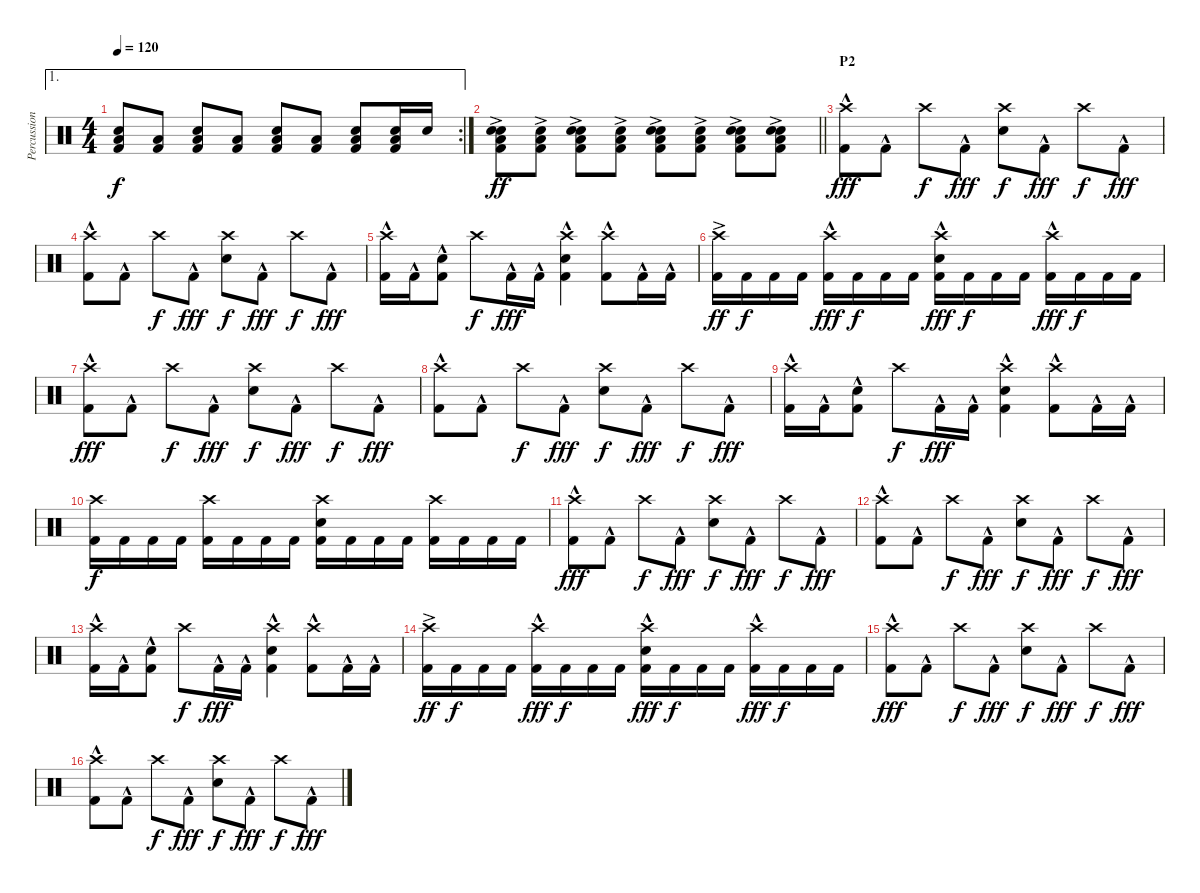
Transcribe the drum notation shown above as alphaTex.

\track ("Percussions" "Percussion") {instrument percussion}
\staff {score}
\articulation defaults
\ae 1
\rc 2
\ts (4 4)
\tempo 120
\clef neutral
\ks c
("Low Tom (hit)" "Snare (hit) 2" "Kick (hit) 2").8{dy f} ("Low Tom (hit)" "Kick (hit) 2").8 ("Snare (hit) 2" "Low Tom (hit)" "Kick (hit) 2").8 ("Low Tom (hit)" "Kick (hit) 2").8 ("Snare (hit) 2" "Low Tom (hit)" "Kick (hit) 2").8 ("Low Tom (hit)" "Kick (hit) 2").8 ("Snare (hit) 2" "Low Tom (hit)" "Kick (hit) 2").8 ("Snare (hit) 2" "Low Tom (hit)" "Kick (hit) 2").16 "Electric Snare (hit)".16 |
\barLineRight lightlight
("Electric Snare (hit)"{ac} "Low Tom (hit)" "Snare (hit) 2" "Kick (hit) 2").8{dy ff} ("Electric Snare (hit)"{ac} "Low Tom (hit)" "Kick (hit) 2").8 ("Electric Snare (hit)"{ac} "Snare (hit) 2" "Low Tom (hit)" "Kick (hit) 2").8 ("Electric Snare (hit)"{ac} "Low Tom (hit)" "Kick (hit) 2").8 ("Electric Snare (hit)"{ac} "Snare (hit) 2" "Low Tom (hit)" "Kick (hit) 2").8 ("Electric Snare (hit)"{ac} "Low Tom (hit)" "Kick (hit) 2").8 ("Electric Snare (hit)"{ac} "Snare (hit) 2" "Low Tom (hit)" "Kick (hit) 2").8 ("Electric Snare (hit)"{ac} "Snare (hit) 2" "Low Tom (hit)" "Kick (hit) 2").8 |
\section ("" "P2")
("Crash high (hit)" "Kick (hit) 2"{hac}).8{dy fff} "Kick (hit) 2"{hac}.8 "Crash high (hit)".8{dy f} "Kick (hit) 2"{hac}.8{dy fff} ("Crash high (hit)" "Snare (hit) 2").8{dy f} "Kick (hit) 2"{hac}.8{dy fff} "Crash high (hit)".8{dy f} "Kick (hit) 2"{hac}.8{dy fff} |
("Crash high (hit)" "Kick (hit) 2"{hac}).8 "Kick (hit) 2"{hac}.8 "Crash high (hit)".8{dy f} "Kick (hit) 2"{hac}.8{dy fff} ("Crash high (hit)" "Snare (hit) 2").8{dy f} "Kick (hit) 2"{hac}.8{dy fff} "Crash high (hit)".8{dy f} "Kick (hit) 2"{hac}.8{dy fff} |
("Crash high (hit)" "Kick (hit) 2"{hac}).16 "Kick (hit) 2"{hac}.16 ("Snare (hit) 2" "Kick (hit) 2"{hac}).8 "Crash high (hit)".8{dy f} "Kick (hit) 2"{hac}.16{dy fff} "Kick (hit) 2"{hac}.16 ("Crash high (hit)" "Snare (hit) 2" "Kick (hit) 2"{hac}).4 ("Crash high (hit)" "Kick (hit) 2"{hac}).8 "Kick (hit) 2"{hac}.16 "Kick (hit) 2"{hac}.16 |
("Crash high (hit)" "Kick (hit) 2"{ac}).16{dy ff} "Kick (hit) 2".16{dy f} "Kick (hit) 2".16 "Kick (hit) 2".16 ("Crash high (hit)" "Kick (hit) 2"{hac}).16{dy fff} "Kick (hit) 2".16{dy f} "Kick (hit) 2".16 "Kick (hit) 2".16 ("Crash high (hit)" "Snare (hit) 2" "Kick (hit) 2"{hac}).16{dy fff} "Kick (hit) 2".16{dy f} "Kick (hit) 2".16 "Kick (hit) 2".16 ("Crash high (hit)" "Kick (hit) 2"{hac}).16{dy fff} "Kick (hit) 2".16{dy f} "Kick (hit) 2".16 "Kick (hit) 2".16 |
("Crash high (hit)" "Kick (hit) 2"{hac}).8{dy fff} "Kick (hit) 2"{hac}.8 "Crash high (hit)".8{dy f} "Kick (hit) 2"{hac}.8{dy fff} ("Crash high (hit)" "Snare (hit) 2").8{dy f} "Kick (hit) 2"{hac}.8{dy fff} "Crash high (hit)".8{dy f} "Kick (hit) 2"{hac}.8{dy fff} |
("Crash high (hit)" "Kick (hit) 2"{hac}).8 "Kick (hit) 2"{hac}.8 "Crash high (hit)".8{dy f} "Kick (hit) 2"{hac}.8{dy fff} ("Crash high (hit)" "Snare (hit) 2").8{dy f} "Kick (hit) 2"{hac}.8{dy fff} "Crash high (hit)".8{dy f} "Kick (hit) 2"{hac}.8{dy fff} |
("Crash high (hit)" "Kick (hit) 2"{hac}).16 "Kick (hit) 2"{hac}.16 ("Snare (hit) 2" "Kick (hit) 2"{hac}).8 "Crash high (hit)".8{dy f} "Kick (hit) 2"{hac}.16{dy fff} "Kick (hit) 2"{hac}.16 ("Crash high (hit)" "Snare (hit) 2" "Kick (hit) 2"{hac}).4 ("Crash high (hit)" "Kick (hit) 2"{hac}).8 "Kick (hit) 2"{hac}.16 "Kick (hit) 2"{hac}.16 |
("Crash high (hit)" "Kick (hit) 2").16{dy f} "Kick (hit) 2".16 "Kick (hit) 2".16 "Kick (hit) 2".16 ("Crash high (hit)" "Kick (hit) 2").16 "Kick (hit) 2".16 "Kick (hit) 2".16 "Kick (hit) 2".16 ("Crash high (hit)" "Snare (hit) 2" "Kick (hit) 2").16 "Kick (hit) 2".16 "Kick (hit) 2".16 "Kick (hit) 2".16 ("Crash high (hit)" "Kick (hit) 2").16 "Kick (hit) 2".16 "Kick (hit) 2".16 "Kick (hit) 2".16 |
("Crash high (hit)" "Kick (hit) 2"{hac}).8{dy fff} "Kick (hit) 2"{hac}.8 "Crash high (hit)".8{dy f} "Kick (hit) 2"{hac}.8{dy fff} ("Crash high (hit)" "Snare (hit) 2").8{dy f} "Kick (hit) 2"{hac}.8{dy fff} "Crash high (hit)".8{dy f} "Kick (hit) 2"{hac}.8{dy fff} |
("Crash high (hit)" "Kick (hit) 2"{hac}).8 "Kick (hit) 2"{hac}.8 "Crash high (hit)".8{dy f} "Kick (hit) 2"{hac}.8{dy fff} ("Crash high (hit)" "Snare (hit) 2").8{dy f} "Kick (hit) 2"{hac}.8{dy fff} "Crash high (hit)".8{dy f} "Kick (hit) 2"{hac}.8{dy fff} |
("Crash high (hit)" "Kick (hit) 2"{hac}).16 "Kick (hit) 2"{hac}.16 ("Snare (hit) 2" "Kick (hit) 2"{hac}).8 "Crash high (hit)".8{dy f} "Kick (hit) 2"{hac}.16{dy fff} "Kick (hit) 2"{hac}.16 ("Crash high (hit)" "Snare (hit) 2" "Kick (hit) 2"{hac}).4 ("Crash high (hit)" "Kick (hit) 2"{hac}).8 "Kick (hit) 2"{hac}.16 "Kick (hit) 2"{hac}.16 |
("Crash high (hit)" "Kick (hit) 2"{ac}).16{dy ff} "Kick (hit) 2".16{dy f} "Kick (hit) 2".16 "Kick (hit) 2".16 ("Crash high (hit)" "Kick (hit) 2"{hac}).16{dy fff} "Kick (hit) 2".16{dy f} "Kick (hit) 2".16 "Kick (hit) 2".16 ("Crash high (hit)" "Snare (hit) 2" "Kick (hit) 2"{hac}).16{dy fff} "Kick (hit) 2".16{dy f} "Kick (hit) 2".16 "Kick (hit) 2".16 ("Crash high (hit)" "Kick (hit) 2"{hac}).16{dy fff} "Kick (hit) 2".16{dy f} "Kick (hit) 2".16 "Kick (hit) 2".16 |
("Crash high (hit)" "Kick (hit) 2"{hac}).8{dy fff} "Kick (hit) 2"{hac}.8 "Crash high (hit)".8{dy f} "Kick (hit) 2"{hac}.8{dy fff} ("Crash high (hit)" "Snare (hit) 2").8{dy f} "Kick (hit) 2"{hac}.8{dy fff} "Crash high (hit)".8{dy f} "Kick (hit) 2"{hac}.8{dy fff} |
("Crash high (hit)" "Kick (hit) 2"{hac}).8 "Kick (hit) 2"{hac}.8 "Crash high (hit)".8{dy f} "Kick (hit) 2"{hac}.8{dy fff} ("Crash high (hit)" "Snare (hit) 2").8{dy f} "Kick (hit) 2"{hac}.8{dy fff} "Crash high (hit)".8{dy f} "Kick (hit) 2"{hac}.8{dy fff}
